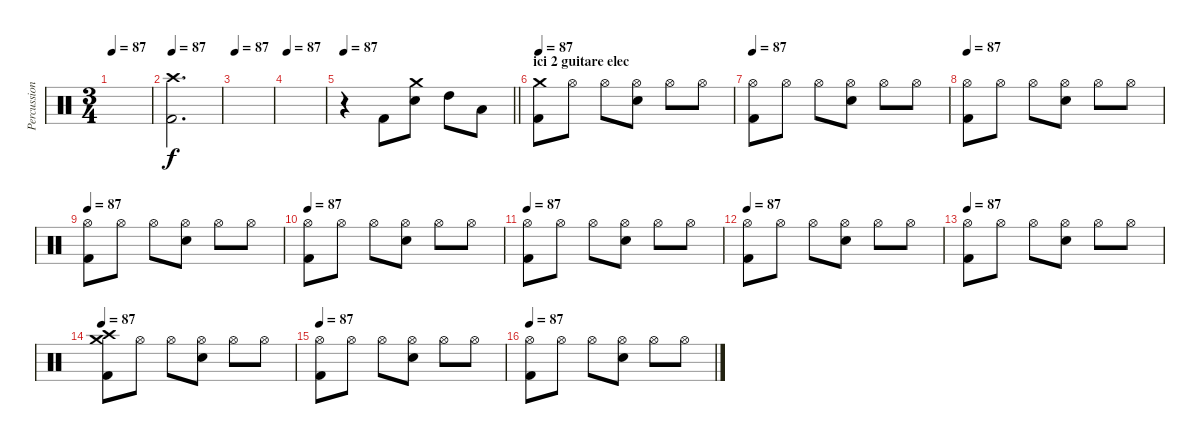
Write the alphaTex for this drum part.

\track ("Percussions" "Percussion") {instrument percussion}
\staff {score}
\articulation defaults
\ts (3 4)
\tempo 87
\clef neutral
\ks c
|
\tempo 87
("Crash high (hit)" "Kick (hit) 2").2{d} |
\tempo 87
|
\tempo 87
|
\tempo 87
\barLineRight lightlight
r.4 "Kick (hit) 2".8 ("Crash medium (hit)" "Electric Snare (hit)").8 "High Tom (hit)".8 "Low Tom (hit)".8 |
\section ("" "ici 2 guitare elec")
\tempo 87
("Crash medium (hit)" "Kick (hit) 2").8 "Hi-Hat (open)".8 "Hi-Hat (open)".8 ("Hi-Hat (open)" "Snare (hit) 2").8 "Hi-Hat (open)".8 "Hi-Hat (open)".8 |
\tempo 87
("Hi-Hat (open)" "Kick (hit) 2").8 "Hi-Hat (open)".8 "Hi-Hat (open)".8 ("Hi-Hat (open)" "Snare (hit) 2").8 "Hi-Hat (open)".8 "Hi-Hat (open)".8 |
\tempo 87
("Hi-Hat (open)" "Kick (hit) 2").8 "Hi-Hat (open)".8 "Hi-Hat (open)".8 ("Hi-Hat (open)" "Snare (hit) 2").8 "Hi-Hat (open)".8 "Hi-Hat (open)".8 |
\tempo 87
("Hi-Hat (open)" "Kick (hit) 2").8 "Hi-Hat (open)".8 "Hi-Hat (open)".8 ("Hi-Hat (open)" "Snare (hit) 2").8 "Hi-Hat (open)".8 "Hi-Hat (open)".8 |
\tempo 87
("Hi-Hat (open)" "Kick (hit) 2").8 "Hi-Hat (open)".8 "Hi-Hat (open)".8 ("Hi-Hat (open)" "Snare (hit) 2").8 "Hi-Hat (open)".8 "Hi-Hat (open)".8 |
\tempo 87
("Hi-Hat (open)" "Kick (hit) 2").8 "Hi-Hat (open)".8 "Hi-Hat (open)".8 ("Hi-Hat (open)" "Snare (hit) 2").8 "Hi-Hat (open)".8 "Hi-Hat (open)".8 |
\tempo 87
("Hi-Hat (open)" "Kick (hit) 2").8 "Hi-Hat (open)".8 "Hi-Hat (open)".8 ("Hi-Hat (open)" "Snare (hit) 2").8 "Hi-Hat (open)".8 "Hi-Hat (open)".8 |
\tempo 87
("Hi-Hat (open)" "Kick (hit) 2").8 "Hi-Hat (open)".8 "Hi-Hat (open)".8 ("Hi-Hat (open)" "Snare (hit) 2").8 "Hi-Hat (open)".8 "Hi-Hat (open)".8 |
\tempo 87
("Crash high (hit)" "Crash medium (hit)" "Kick (hit) 2").8 "Hi-Hat (open)".8 "Hi-Hat (open)".8 ("Hi-Hat (open)" "Snare (hit) 2").8 "Hi-Hat (open)".8 "Hi-Hat (open)".8 |
\tempo 87
("Hi-Hat (open)" "Kick (hit) 2").8 "Hi-Hat (open)".8 "Hi-Hat (open)".8 ("Hi-Hat (open)" "Snare (hit) 2").8 "Hi-Hat (open)".8 "Hi-Hat (open)".8 |
\tempo 87
("Hi-Hat (open)" "Kick (hit) 2").8 "Hi-Hat (open)".8 "Hi-Hat (open)".8 ("Hi-Hat (open)" "Snare (hit) 2").8 "Hi-Hat (open)".8 "Hi-Hat (open)".8
